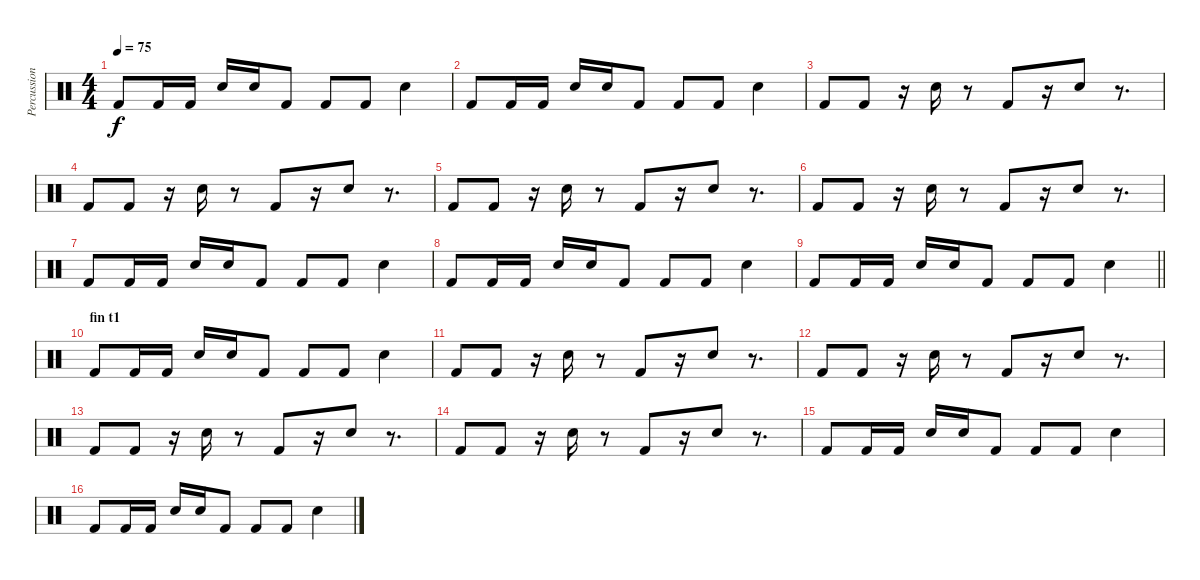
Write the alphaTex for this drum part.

\track ("Percussions" "Percussion") {instrument percussion}
\staff {score}
\articulation defaults
\ts (4 4)
\tempo 75
\clef neutral
\ks c "Kick (hit) 2".8{dy f} "Kick (hit) 2".16 "Kick (hit) 2".16 "Electric Snare (hit)".16 "Electric Snare (hit)".16 "Kick (hit) 2".8 "Kick (hit) 2".8 "Kick (hit) 2".8 "Electric Snare (hit)".4
|
"Kick (hit) 2".8 "Kick (hit) 2".16 "Kick (hit) 2".16 "Electric Snare (hit)".16 "Electric Snare (hit)".16 "Kick (hit) 2".8 "Kick (hit) 2".8 "Kick (hit) 2".8 "Electric Snare (hit)".4 |
"Kick (hit) 2".8 "Kick (hit) 2".8 r.16 "Electric Snare (hit)".16 r.8 "Kick (hit) 2".8 r.16 "Electric Snare (hit)".8 r.8{d} |
"Kick (hit) 2".8 "Kick (hit) 2".8 r.16 "Electric Snare (hit)".16 r.8 "Kick (hit) 2".8 r.16 "Electric Snare (hit)".8 r.8{d} |
"Kick (hit) 2".8 "Kick (hit) 2".8 r.16 "Electric Snare (hit)".16 r.8 "Kick (hit) 2".8 r.16 "Electric Snare (hit)".8 r.8{d} |
"Kick (hit) 2".8 "Kick (hit) 2".8 r.16 "Electric Snare (hit)".16 r.8 "Kick (hit) 2".8 r.16 "Electric Snare (hit)".8 r.8{d} |
"Kick (hit) 2".8 "Kick (hit) 2".16 "Kick (hit) 2".16 "Electric Snare (hit)".16 "Electric Snare (hit)".16 "Kick (hit) 2".8 "Kick (hit) 2".8 "Kick (hit) 2".8 "Electric Snare (hit)".4 |
"Kick (hit) 2".8 "Kick (hit) 2".16 "Kick (hit) 2".16 "Electric Snare (hit)".16 "Electric Snare (hit)".16 "Kick (hit) 2".8 "Kick (hit) 2".8 "Kick (hit) 2".8 "Electric Snare (hit)".4 |
\barLineRight lightlight "Kick (hit) 2".8 "Kick (hit) 2".16 "Kick (hit) 2".16 "Electric Snare (hit)".16 "Electric Snare (hit)".16 "Kick (hit) 2".8 "Kick (hit) 2".8 "Kick (hit) 2".8 "Electric Snare (hit)".4
|
\section ("" "fin t1")
"Kick (hit) 2".8 "Kick (hit) 2".16 "Kick (hit) 2".16 "Electric Snare (hit)".16 "Electric Snare (hit)".16 "Kick (hit) 2".8 "Kick (hit) 2".8 "Kick (hit) 2".8 "Electric Snare (hit)".4 |
"Kick (hit) 2".8 "Kick (hit) 2".8 r.16 "Electric Snare (hit)".16 r.8 "Kick (hit) 2".8 r.16 "Electric Snare (hit)".8 r.8{d} |
"Kick (hit) 2".8 "Kick (hit) 2".8 r.16 "Electric Snare (hit)".16 r.8 "Kick (hit) 2".8 r.16 "Electric Snare (hit)".8 r.8{d} |
"Kick (hit) 2".8 "Kick (hit) 2".8 r.16 "Electric Snare (hit)".16 r.8 "Kick (hit) 2".8 r.16 "Electric Snare (hit)".8 r.8{d} |
"Kick (hit) 2".8 "Kick (hit) 2".8 r.16 "Electric Snare (hit)".16 r.8 "Kick (hit) 2".8 r.16 "Electric Snare (hit)".8 r.8{d} |
"Kick (hit) 2".8 "Kick (hit) 2".16 "Kick (hit) 2".16 "Electric Snare (hit)".16 "Electric Snare (hit)".16 "Kick (hit) 2".8 "Kick (hit) 2".8 "Kick (hit) 2".8 "Electric Snare (hit)".4 |
"Kick (hit) 2".8 "Kick (hit) 2".16 "Kick (hit) 2".16 "Electric Snare (hit)".16 "Electric Snare (hit)".16 "Kick (hit) 2".8 "Kick (hit) 2".8 "Kick (hit) 2".8 "Electric Snare (hit)".4
